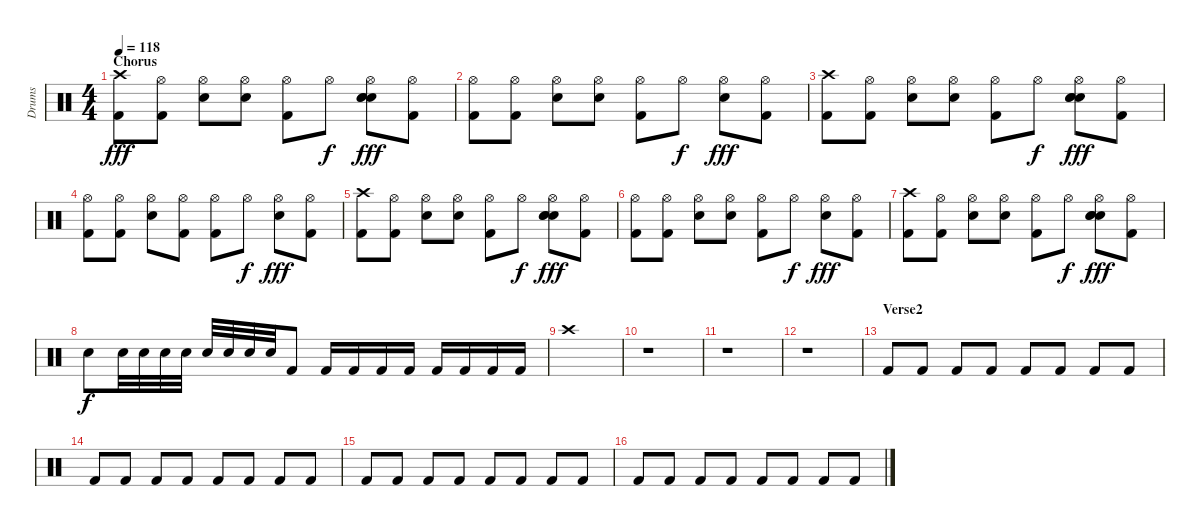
\track ("Drums" "Drums") {instrument percussion}
\staff {score}
\articulation defaults
\ts (4 4)
\section ("" "Chorus")
\tempo 118
\clef neutral
\ks c
("Crash high (hit)" "Kick (hit) 2").8{dy fff} ("Hi-Hat (open)" "Kick (hit) 2").8 ("Hi-Hat (open)" "Electric Snare (hit)").8 ("Hi-Hat (open)" "Electric Snare (hit)").8 ("Hi-Hat (open)" "Kick (hit) 2").8 "Hi-Hat (open)".8{dy f} ("Hi-Hat (open)" "Electric Snare (hit)" "Hand Clap (hit)" "Hand Clap (hit)").8{dy fff} ("Hi-Hat (open)" "Kick (hit) 2").8 |
("Hi-Hat (open)" "Kick (hit) 2").8 ("Hi-Hat (open)" "Kick (hit) 2").8 ("Hi-Hat (open)" "Electric Snare (hit)").8 ("Hi-Hat (open)" "Electric Snare (hit)").8 ("Hi-Hat (open)" "Kick (hit) 2").8 "Hi-Hat (open)".8{dy f} ("Hi-Hat (open)" "Electric Snare (hit)").8{dy fff} ("Hi-Hat (open)" "Kick (hit) 2").8 |
("Crash high (hit)" "Kick (hit) 2").8 ("Hi-Hat (open)" "Kick (hit) 2").8 ("Hi-Hat (open)" "Electric Snare (hit)").8 ("Hi-Hat (open)" "Electric Snare (hit)").8 ("Hi-Hat (open)" "Kick (hit) 2").8 "Hi-Hat (open)".8{dy f} ("Hi-Hat (open)" "Electric Snare (hit)" "Hand Clap (hit)" "Hand Clap (hit)").8{dy fff} ("Hi-Hat (open)" "Kick (hit) 2").8 |
("Hi-Hat (open)" "Kick (hit) 2").8 ("Hi-Hat (open)" "Kick (hit) 2").8 ("Hi-Hat (open)" "Electric Snare (hit)").8 ("Hi-Hat (open)" "Kick (hit) 2").8 ("Hi-Hat (open)" "Kick (hit) 2").8 "Hi-Hat (open)".8{dy f} ("Hi-Hat (open)" "Electric Snare (hit)").8{dy fff} ("Hi-Hat (open)" "Kick (hit) 2").8 |
("Crash high (hit)" "Kick (hit) 2").8 ("Hi-Hat (open)" "Kick (hit) 2").8 ("Hi-Hat (open)" "Electric Snare (hit)").8 ("Hi-Hat (open)" "Electric Snare (hit)").8 ("Hi-Hat (open)" "Kick (hit) 2").8 "Hi-Hat (open)".8{dy f} ("Hi-Hat (open)" "Electric Snare (hit)" "Hand Clap (hit)" "Hand Clap (hit)").8{dy fff} ("Hi-Hat (open)" "Kick (hit) 2").8 |
("Hi-Hat (open)" "Kick (hit) 2").8 ("Hi-Hat (open)" "Kick (hit) 2").8 ("Hi-Hat (open)" "Electric Snare (hit)").8 ("Hi-Hat (open)" "Electric Snare (hit)").8 ("Hi-Hat (open)" "Kick (hit) 2").8 "Hi-Hat (open)".8{dy f} ("Hi-Hat (open)" "Electric Snare (hit)").8{dy fff} ("Hi-Hat (open)" "Kick (hit) 2").8 |
("Crash high (hit)" "Kick (hit) 2").8 ("Hi-Hat (open)" "Kick (hit) 2").8 ("Hi-Hat (open)" "Electric Snare (hit)").8 ("Hi-Hat (open)" "Electric Snare (hit)").8 ("Hi-Hat (open)" "Kick (hit) 2").8 "Hi-Hat (open)".8{dy f} ("Hi-Hat (open)" "Electric Snare (hit)" "Hand Clap (hit)" "Hand Clap (hit)").8{dy fff} ("Hi-Hat (open)" "Kick (hit) 2").8 |
"Electric Snare (hit)".8{dy f} "Electric Snare (hit)".32 "Electric Snare (hit)".32 "Electric Snare (hit)".32 "Electric Snare (hit)".32 "Electric Snare (hit)".32 "Electric Snare (hit)".32 "Electric Snare (hit)".32 "Electric Snare (hit)".32 "Kick (hit) 2".8 "Kick (hit) 2".16 "Kick (hit) 2".16 "Kick (hit) 2".16 "Kick (hit) 2".16 "Kick (hit) 2".16 "Kick (hit) 2".16 "Kick (hit) 2".16 "Kick (hit) 2".16 |
"Crash high (hit)".1 |
r.1 |
r.1 |
r.1 |
\section ("" "Verse2")
"Kick (hit) 2".8 "Kick (hit) 2".8 "Kick (hit) 2".8 "Kick (hit) 2".8 "Kick (hit) 2".8 "Kick (hit) 2".8 "Kick (hit) 2".8 "Kick (hit) 2".8 |
"Kick (hit) 2".8 "Kick (hit) 2".8 "Kick (hit) 2".8 "Kick (hit) 2".8 "Kick (hit) 2".8 "Kick (hit) 2".8 "Kick (hit) 2".8 "Kick (hit) 2".8 |
"Kick (hit) 2".8 "Kick (hit) 2".8 "Kick (hit) 2".8 "Kick (hit) 2".8 "Kick (hit) 2".8 "Kick (hit) 2".8 "Kick (hit) 2".8 "Kick (hit) 2".8 |
"Kick (hit) 2".8 "Kick (hit) 2".8 "Kick (hit) 2".8 "Kick (hit) 2".8 "Kick (hit) 2".8 "Kick (hit) 2".8 "Kick (hit) 2".8 "Kick (hit) 2".8
